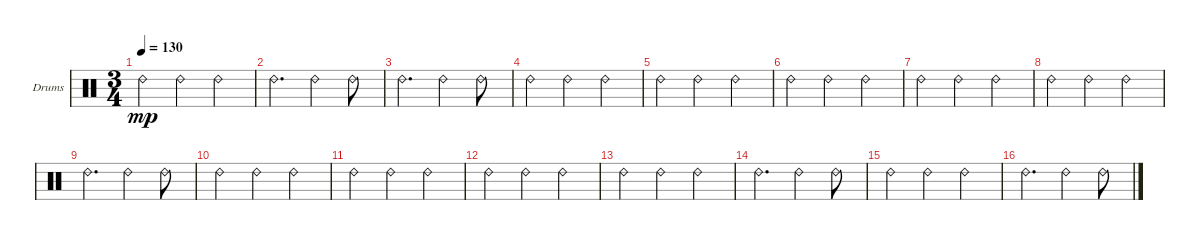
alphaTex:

\bracketExtendMode groupsimilarinstruments
\firstSystemTrackNameOrientation horizontal
\otherSystemsTrackNameOrientation horizontal
\track ("OH" "Drums") {instrument percussion}
\staff {score}
\articulation defaults
\ts (3 4)
\tempo 130
\clef neutral
\ks c "Ride (bell) 2".4{dy mp} "Ride (bell) 2".4 "Ride (bell) 2".4
|
"Ride (bell) 2".4{d} "Ride (bell) 2".4 "Ride (bell) 2".8 |
"Ride (bell) 2".4{d} "Ride (bell) 2".4 "Ride (bell) 2".8 |
"Ride (bell) 2".4 "Ride (bell) 2".4 "Ride (bell) 2".4 |
"Ride (bell) 2".4 "Ride (bell) 2".4 "Ride (bell) 2".4 |
"Ride (bell) 2".4 "Ride (bell) 2".4 "Ride (bell) 2".4 |
"Ride (bell) 2".4 "Ride (bell) 2".4 "Ride (bell) 2".4 |
"Ride (bell) 2".4 "Ride (bell) 2".4 "Ride (bell) 2".4 |
"Ride (bell) 2".4{d} "Ride (bell) 2".4 "Ride (bell) 2".8 |
"Ride (bell) 2".4 "Ride (bell) 2".4 "Ride (bell) 2".4 |
"Ride (bell) 2".4 "Ride (bell) 2".4 "Ride (bell) 2".4 |
"Ride (bell) 2".4 "Ride (bell) 2".4 "Ride (bell) 2".4 |
"Ride (bell) 2".4 "Ride (bell) 2".4 "Ride (bell) 2".4 |
"Ride (bell) 2".4{d} "Ride (bell) 2".4 "Ride (bell) 2".8 |
"Ride (bell) 2".4 "Ride (bell) 2".4 "Ride (bell) 2".4 |
"Ride (bell) 2".4{d} "Ride (bell) 2".4 "Ride (bell) 2".8
